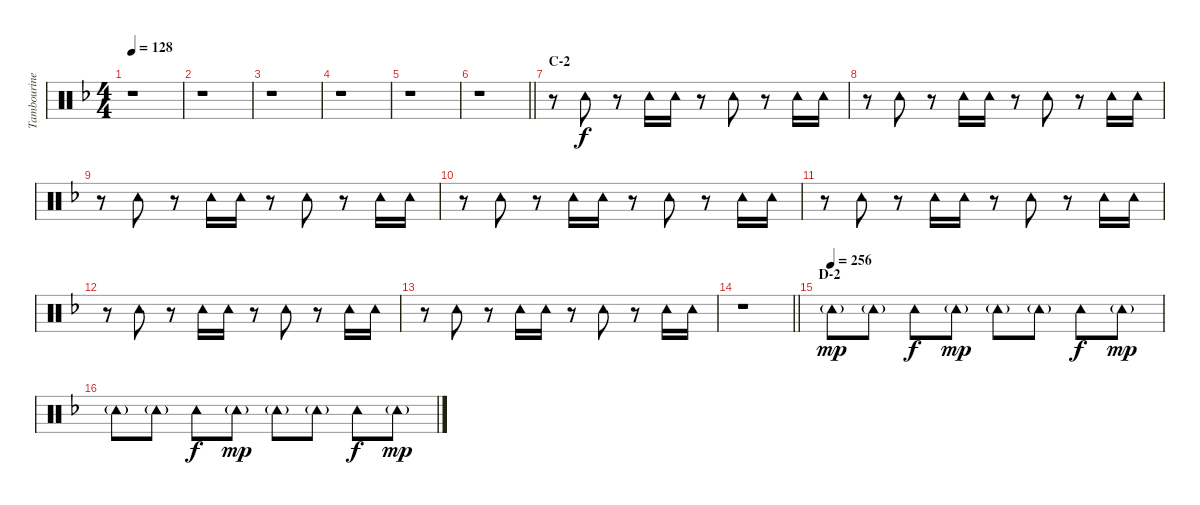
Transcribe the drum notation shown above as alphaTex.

\track ("Tambourine" "Tambourine") {instrument percussion}
\staff {score}
\articulation defaults
\ts (4 4)
\tempo 128
\clef neutral
\ks f
r.1{dy mp} |
r.1 |
r.1 |
r.1 |
r.1 |
\barLineRight lightlight
r.1 |
\section ("" "C-2")
r.8 "Tambourine (hit)".8{dy f} r.8 "Tambourine (hit)".16 "Tambourine (hit)".16 r.8 "Tambourine (hit)".8 r.8 "Tambourine (hit)".16 "Tambourine (hit)".16 |
r.8 "Tambourine (hit)".8 r.8 "Tambourine (hit)".16 "Tambourine (hit)".16 r.8 "Tambourine (hit)".8 r.8 "Tambourine (hit)".16 "Tambourine (hit)".16 |
r.8 "Tambourine (hit)".8 r.8 "Tambourine (hit)".16 "Tambourine (hit)".16 r.8 "Tambourine (hit)".8 r.8 "Tambourine (hit)".16 "Tambourine (hit)".16 |
r.8 "Tambourine (hit)".8 r.8 "Tambourine (hit)".16 "Tambourine (hit)".16 r.8 "Tambourine (hit)".8 r.8 "Tambourine (hit)".16 "Tambourine (hit)".16 |
r.8 "Tambourine (hit)".8 r.8 "Tambourine (hit)".16 "Tambourine (hit)".16 r.8 "Tambourine (hit)".8 r.8 "Tambourine (hit)".16 "Tambourine (hit)".16 |
r.8 "Tambourine (hit)".8 r.8 "Tambourine (hit)".16 "Tambourine (hit)".16 r.8 "Tambourine (hit)".8 r.8 "Tambourine (hit)".16 "Tambourine (hit)".16 |
r.8 "Tambourine (hit)".8 r.8 "Tambourine (hit)".16 "Tambourine (hit)".16 r.8 "Tambourine (hit)".8 r.8 "Tambourine (hit)".16 "Tambourine (hit)".16 |
\barLineRight lightlight
r.1 |
\section ("" "D-2")
\tempo (256)
"Tambourine (hit)"{g}.8{dy mp} "Tambourine (hit)"{g}.8 "Tambourine (hit)".8{dy f} "Tambourine (hit)"{g}.8{dy mp} "Tambourine (hit)"{g}.8 "Tambourine (hit)"{g}.8 "Tambourine (hit)".8{dy f} "Tambourine (hit)"{g}.8{dy mp} |
"Tambourine (hit)"{g}.8 "Tambourine (hit)"{g}.8 "Tambourine (hit)".8{dy f} "Tambourine (hit)"{g}.8{dy mp} "Tambourine (hit)"{g}.8 "Tambourine (hit)"{g}.8 "Tambourine (hit)".8{dy f} "Tambourine (hit)"{g}.8{dy mp}
